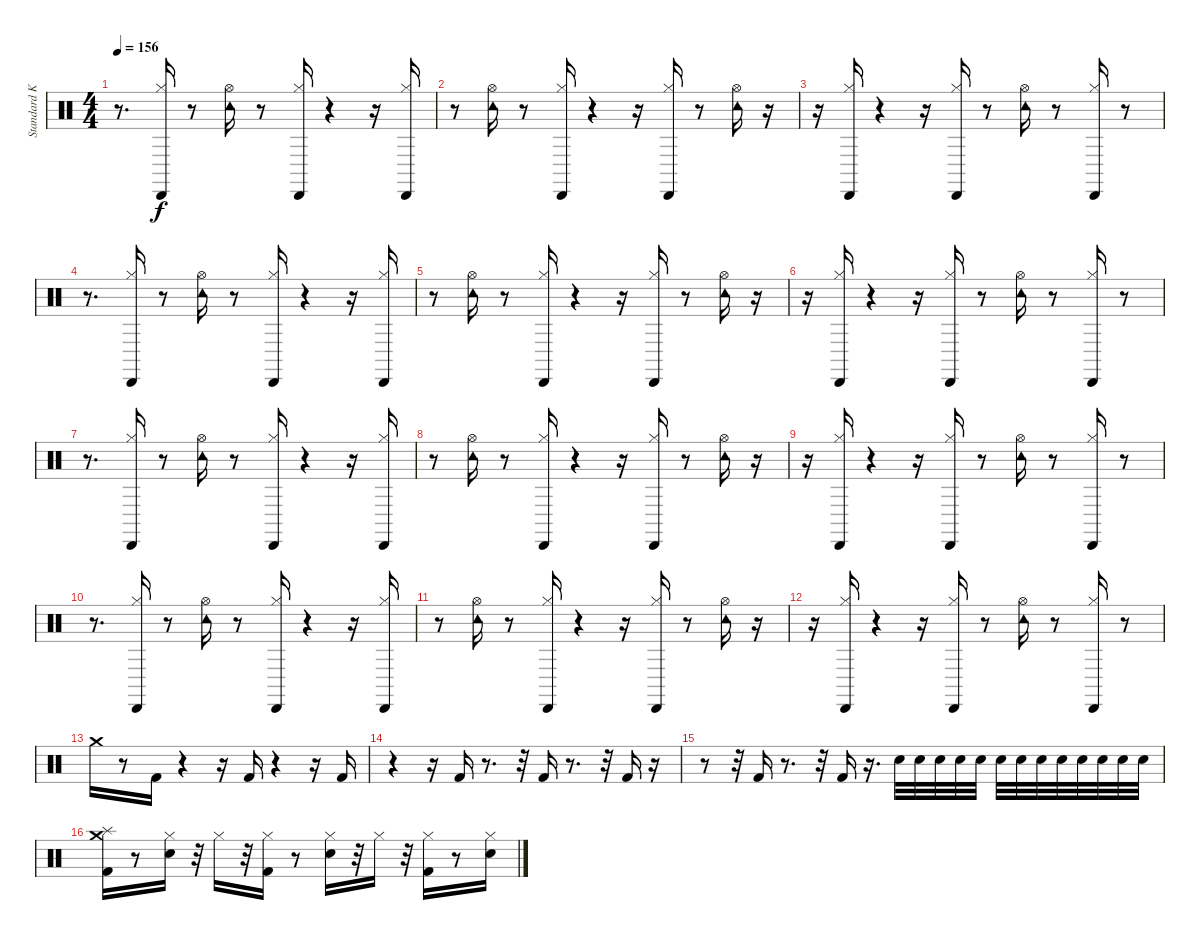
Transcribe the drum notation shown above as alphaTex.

\track ("Standard Kit" "Standard K") {instrument percussion}
\staff {score}
\articulation defaults
\ts (4 4)
\tempo 156
\clef neutral
\ks c
r.8{d dy f} ("Hi-Hat (closed)" "Cabasa (hit)").16 r.8 ("Hi-Hat (open)" "Tambourine (hit)").16 r.8 ("Hi-Hat (closed)" "Cabasa (hit)").16 r.4 r.16 ("Hi-Hat (closed)" "Cabasa (hit)").16 |
r.8 ("Hi-Hat (open)" "Tambourine (hit)").16 r.8 ("Hi-Hat (closed)" "Cabasa (hit)").16 r.4 r.16 ("Hi-Hat (closed)" "Cabasa (hit)").16 r.8 ("Hi-Hat (open)" "Tambourine (hit)").16 r.16 |
r.16 ("Hi-Hat (closed)" "Cabasa (hit)").16 r.4 r.16 ("Hi-Hat (closed)" "Cabasa (hit)").16 r.8 ("Hi-Hat (open)" "Tambourine (hit)").16 r.8 ("Hi-Hat (closed)" "Cabasa (hit)").16 r.8 |
r.8{d} ("Hi-Hat (closed)" "Cabasa (hit)").16 r.8 ("Hi-Hat (open)" "Tambourine (hit)").16 r.8 ("Hi-Hat (closed)" "Cabasa (hit)").16 r.4 r.16 ("Hi-Hat (closed)" "Cabasa (hit)").16 |
r.8 ("Hi-Hat (open)" "Tambourine (hit)").16 r.8 ("Hi-Hat (closed)" "Cabasa (hit)").16 r.4 r.16 ("Hi-Hat (closed)" "Cabasa (hit)").16 r.8 ("Hi-Hat (open)" "Tambourine (hit)").16 r.16 |
r.16 ("Hi-Hat (closed)" "Cabasa (hit)").16 r.4 r.16 ("Hi-Hat (closed)" "Cabasa (hit)").16 r.8 ("Hi-Hat (open)" "Tambourine (hit)").16 r.8 ("Hi-Hat (closed)" "Cabasa (hit)").16 r.8 |
r.8{d} ("Hi-Hat (closed)" "Cabasa (hit)").16 r.8 ("Hi-Hat (open)" "Tambourine (hit)").16 r.8 ("Hi-Hat (closed)" "Cabasa (hit)").16 r.4 r.16 ("Hi-Hat (closed)" "Cabasa (hit)").16 |
r.8 ("Hi-Hat (open)" "Tambourine (hit)").16 r.8 ("Hi-Hat (closed)" "Cabasa (hit)").16 r.4 r.16 ("Hi-Hat (closed)" "Cabasa (hit)").16 r.8 ("Hi-Hat (open)" "Tambourine (hit)").16 r.16 |
r.16 ("Hi-Hat (closed)" "Cabasa (hit)").16 r.4 r.16 ("Hi-Hat (closed)" "Cabasa (hit)").16 r.8 ("Hi-Hat (open)" "Tambourine (hit)").16 r.8 ("Hi-Hat (closed)" "Cabasa (hit)").16 r.8 |
r.8{d} ("Hi-Hat (closed)" "Cabasa (hit)").16 r.8 ("Hi-Hat (open)" "Tambourine (hit)").16 r.8 ("Hi-Hat (closed)" "Cabasa (hit)").16 r.4 r.16 ("Hi-Hat (closed)" "Cabasa (hit)").16 |
r.8 ("Hi-Hat (open)" "Tambourine (hit)").16 r.8 ("Hi-Hat (closed)" "Cabasa (hit)").16 r.4 r.16 ("Hi-Hat (closed)" "Cabasa (hit)").16 r.8 ("Hi-Hat (open)" "Tambourine (hit)").16 r.16 |
r.16 ("Hi-Hat (closed)" "Cabasa (hit)").16 r.4 r.16 ("Hi-Hat (closed)" "Cabasa (hit)").16 r.8 ("Hi-Hat (open)" "Tambourine (hit)").16 r.8 ("Hi-Hat (closed)" "Cabasa (hit)").16 r.8 |
"Crash medium (hit)".16 r.8 "Kick (hit) 2".16 r.4 r.16 "Kick (hit) 2".16 r.4 r.16 "Kick (hit) 2".16 |
r.4 r.16 "Kick (hit) 2".16 r.8{d} r.32 "Kick (hit) 2".16 r.8{d} r.32 "Kick (hit) 2".16 r.16 |
r.8 r.32 "Kick (hit) 2".16 r.8{d} r.32 "Kick (hit) 2".16 r.16{d} "Electric Snare (hit)".32 "Electric Snare (hit)".32 "Electric Snare (hit)".32 "Electric Snare (hit)".32 "Electric Snare (hit)".32 "Electric Snare (hit)".32 "Electric Snare (hit)".32 "Electric Snare (hit)".32 "Electric Snare (hit)".32 "Electric Snare (hit)".32 "Electric Snare (hit)".32 "Electric Snare (hit)".32 "Electric Snare (hit)".32 |
("Kick (hit) 2" "Splash (hit)" "Crash medium (hit)").16 r.8 ("Electric Snare (hit)" "Hi-Hat (closed)").16 r.32 "Hi-Hat (closed)".16 r.32 ("Kick (hit) 2" "Hi-Hat (closed)").16 r.8 ("Electric Snare (hit)" "Hi-Hat (closed)").16 r.32 "Hi-Hat (closed)".16 r.32 ("Kick (hit) 2" "Hi-Hat (closed)").16 r.8 ("Electric Snare (hit)" "Hi-Hat (closed)").16
